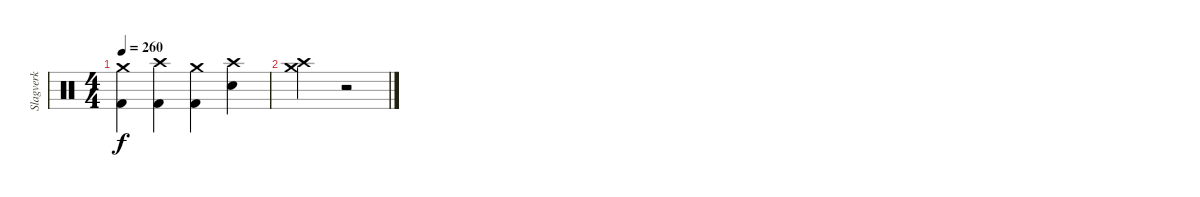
\track ("Slagverk" "Slagverk") {instrument percussion}
\staff {score}
\articulation defaults
\ts (4 4)
\tempo 260
\clef neutral
\ks c
("Crash medium (hit)" "Kick (hit) 2").4{dy f} ("Crash high (hit)" "Kick (hit) 2").4 ("Crash medium (hit)" "Kick (hit) 2").4 ("Crash high (hit)" "Electric Snare (hit)").4 |
("Crash medium (hit)" "Crash high (hit)").2 r.2
